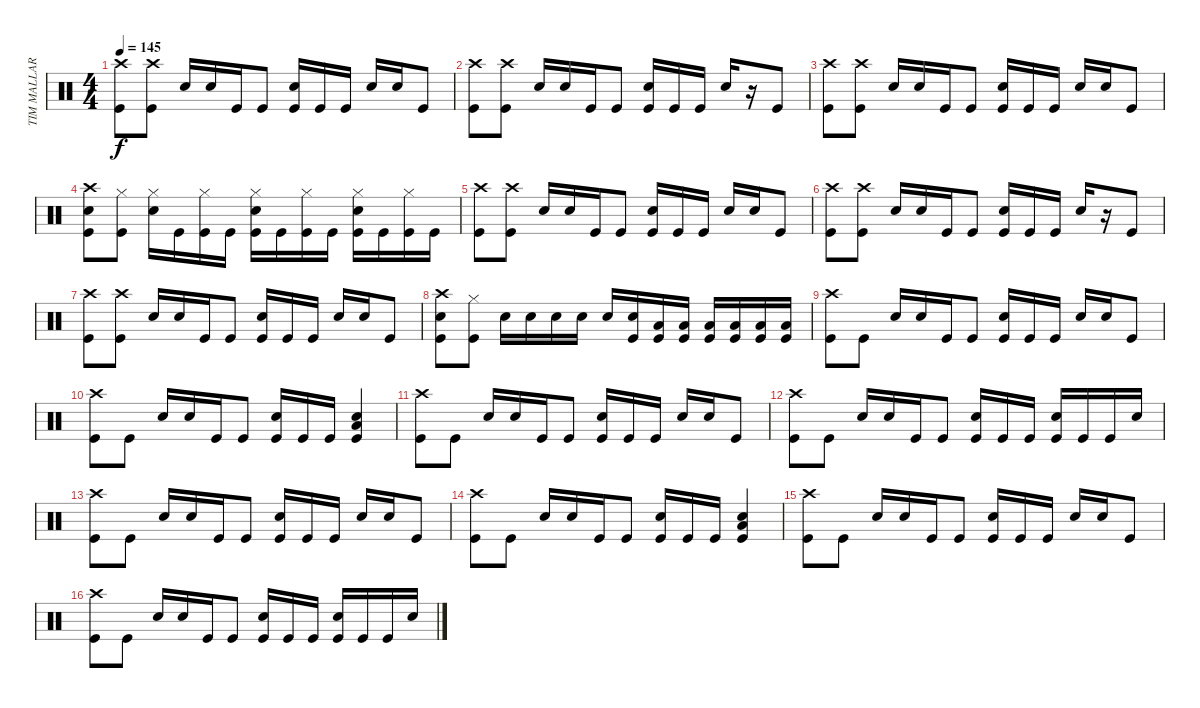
\track ("TIM MALLARE - drums" "TIM MALLAR") {instrument percussion}
\staff {score}
\articulation defaults
\ts (4 4)
\tempo 145
\clef neutral
\ks c
("Crash high (hit)" "Kick (hit)").8{dy f} ("Crash high (hit)" "Kick (hit)").8 "Electric Snare (hit)".16 "Electric Snare (hit)".16 "Kick (hit)".16 "Kick (hit)".8 ("Electric Snare (hit)" "Kick (hit)").16 "Kick (hit)".16 "Kick (hit)".16 "Electric Snare (hit)".16 "Electric Snare (hit)".16 "Kick (hit)".8 |
("Crash high (hit)" "Kick (hit)").8 ("Crash high (hit)" "Kick (hit)").8 "Electric Snare (hit)".16 "Electric Snare (hit)".16 "Kick (hit)".16 "Kick (hit)".8 ("Electric Snare (hit)" "Kick (hit)").16 "Kick (hit)".16 "Kick (hit)".16 "Electric Snare (hit)".16 r.16 "Kick (hit)".8 |
("Crash high (hit)" "Kick (hit)").8 ("Crash high (hit)" "Kick (hit)").8 "Electric Snare (hit)".16 "Electric Snare (hit)".16 "Kick (hit)".16 "Kick (hit)".8 ("Electric Snare (hit)" "Kick (hit)").16 "Kick (hit)".16 "Kick (hit)".16 "Electric Snare (hit)".16 "Electric Snare (hit)".16 "Kick (hit)".8 |
("Crash high (hit)" "Electric Snare (hit)" "Kick (hit)").8 ("Hi-Hat (closed)" "Kick (hit)").8 ("Hi-Hat (closed)" "Electric Snare (hit)").16 "Kick (hit)".16 ("Hi-Hat (closed)" "Kick (hit)").16 "Kick (hit)".16 ("Hi-Hat (closed)" "Electric Snare (hit)" "Kick (hit)").16 "Kick (hit)".16 ("Hi-Hat (closed)" "Kick (hit)").16 "Kick (hit)".16 ("Hi-Hat (closed)" "Electric Snare (hit)" "Kick (hit)").16 "Kick (hit)".16 ("Hi-Hat (closed)" "Kick (hit)").16 "Kick (hit)".16 |
("Crash high (hit)" "Kick (hit)").8 ("Crash high (hit)" "Kick (hit)").8 "Electric Snare (hit)".16 "Electric Snare (hit)".16 "Kick (hit)".16 "Kick (hit)".8 ("Electric Snare (hit)" "Kick (hit)").16 "Kick (hit)".16 "Kick (hit)".16 "Electric Snare (hit)".16 "Electric Snare (hit)".16 "Kick (hit)".8 |
("Crash high (hit)" "Kick (hit)").8 ("Crash high (hit)" "Kick (hit)").8 "Electric Snare (hit)".16 "Electric Snare (hit)".16 "Kick (hit)".16 "Kick (hit)".8 ("Electric Snare (hit)" "Kick (hit)").16 "Kick (hit)".16 "Kick (hit)".16 "Electric Snare (hit)".16 r.16 "Kick (hit)".8 |
("Crash high (hit)" "Kick (hit)").8 ("Crash high (hit)" "Kick (hit)").8 "Electric Snare (hit)".16 "Electric Snare (hit)".16 "Kick (hit)".16 "Kick (hit)".8 ("Electric Snare (hit)" "Kick (hit)").16 "Kick (hit)".16 "Kick (hit)".16 "Electric Snare (hit)".16 "Electric Snare (hit)".16 "Kick (hit)".8 |
("Crash high (hit)" "Electric Snare (hit)" "Kick (hit)").8 ("Hi-Hat (closed)" "Kick (hit)").8 "Electric Snare (hit)".16 "Electric Snare (hit)".16 "Electric Snare (hit)".16 "Electric Snare (hit)".16 "Electric Snare (hit)".16 ("Electric Snare (hit)" "Kick (hit)").16 ("Low Tom (hit)" "Kick (hit)").16 ("Low Tom (hit)" "Kick (hit)").16 ("Low Tom (hit)" "Kick (hit)").16 ("Low Tom (hit)" "Kick (hit)").16 ("Low Tom (hit)" "Kick (hit)").16 ("Low Tom (hit)" "Kick (hit)").16 |
("Crash high (hit)" "Kick (hit)").8 "Kick (hit)".8 "Electric Snare (hit)".16 "Electric Snare (hit)".16 "Kick (hit)".16 "Kick (hit)".8 ("Electric Snare (hit)" "Kick (hit)").16 "Kick (hit)".16 "Kick (hit)".16 "Electric Snare (hit)".16 "Electric Snare (hit)".16 "Kick (hit)".8 |
("Crash high (hit)" "Kick (hit)").8 "Kick (hit)".8 "Electric Snare (hit)".16 "Electric Snare (hit)".16 "Kick (hit)".16 "Kick (hit)".8 ("Electric Snare (hit)" "Kick (hit)").16 "Kick (hit)".16 "Kick (hit)".16 ("Electric Snare (hit)" "Low Tom (hit)" "Kick (hit)").4 |
("Crash high (hit)" "Kick (hit)").8 "Kick (hit)".8 "Electric Snare (hit)".16 "Electric Snare (hit)".16 "Kick (hit)".16 "Kick (hit)".8 ("Electric Snare (hit)" "Kick (hit)").16 "Kick (hit)".16 "Kick (hit)".16 "Electric Snare (hit)".16 "Electric Snare (hit)".16 "Kick (hit)".8 |
("Crash high (hit)" "Kick (hit)").8 "Kick (hit)".8 "Electric Snare (hit)".16 "Electric Snare (hit)".16 "Kick (hit)".16 "Kick (hit)".8 ("Electric Snare (hit)" "Kick (hit)").16 "Kick (hit)".16 "Kick (hit)".16 ("Electric Snare (hit)" "Kick (hit)").16 "Kick (hit)".16 "Kick (hit)".16 "Electric Snare (hit)".16 |
("Crash high (hit)" "Kick (hit)").8 "Kick (hit)".8 "Electric Snare (hit)".16 "Electric Snare (hit)".16 "Kick (hit)".16 "Kick (hit)".8 ("Electric Snare (hit)" "Kick (hit)").16 "Kick (hit)".16 "Kick (hit)".16 "Electric Snare (hit)".16 "Electric Snare (hit)".16 "Kick (hit)".8 |
("Crash high (hit)" "Kick (hit)").8 "Kick (hit)".8 "Electric Snare (hit)".16 "Electric Snare (hit)".16 "Kick (hit)".16 "Kick (hit)".8 ("Electric Snare (hit)" "Kick (hit)").16 "Kick (hit)".16 "Kick (hit)".16 ("Electric Snare (hit)" "Low Tom (hit)" "Kick (hit)").4 |
("Crash high (hit)" "Kick (hit)").8 "Kick (hit)".8 "Electric Snare (hit)".16 "Electric Snare (hit)".16 "Kick (hit)".16 "Kick (hit)".8 ("Electric Snare (hit)" "Kick (hit)").16 "Kick (hit)".16 "Kick (hit)".16 "Electric Snare (hit)".16 "Electric Snare (hit)".16 "Kick (hit)".8 |
("Crash high (hit)" "Kick (hit)").8 "Kick (hit)".8 "Electric Snare (hit)".16 "Electric Snare (hit)".16 "Kick (hit)".16 "Kick (hit)".8 ("Electric Snare (hit)" "Kick (hit)").16 "Kick (hit)".16 "Kick (hit)".16 ("Electric Snare (hit)" "Kick (hit)").16 "Kick (hit)".16 "Kick (hit)".16 "Electric Snare (hit)".16
